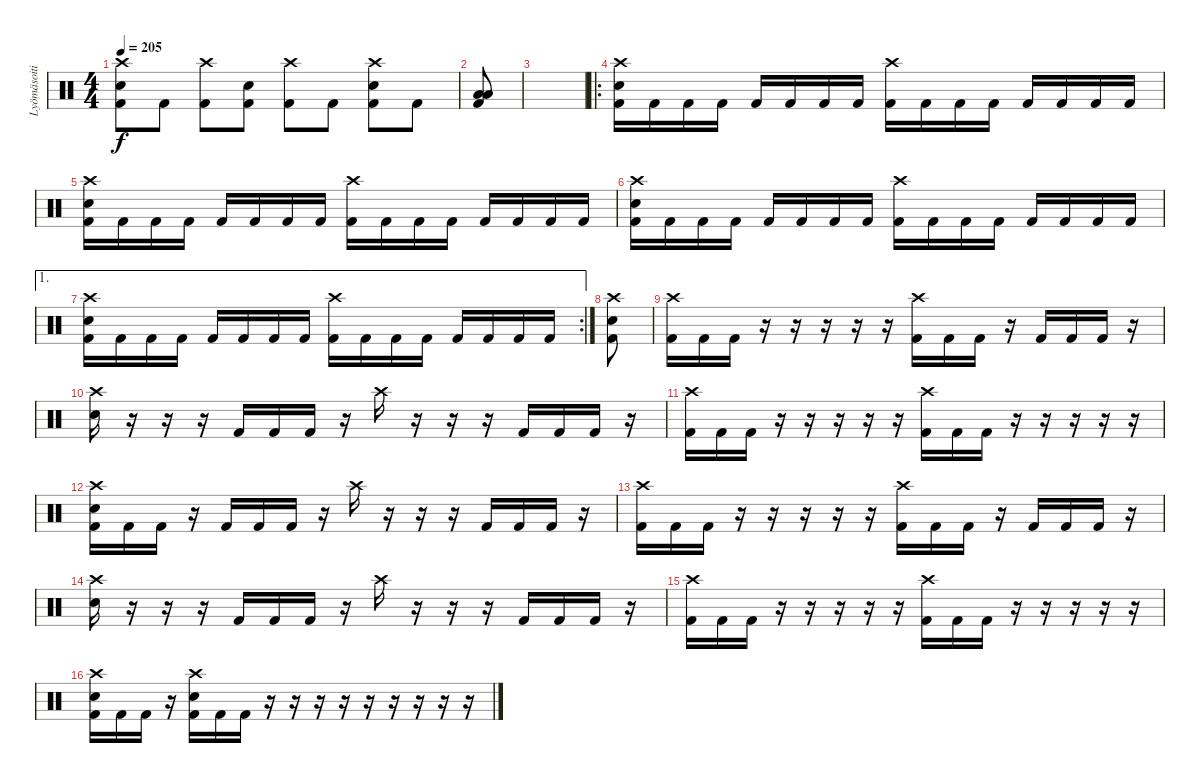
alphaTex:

\track ("Lyömäsoitin" "Lyömäsoiti") {instrument percussion}
\staff {score}
\articulation defaults
\ts (4 4)
\tempo 205
\clef neutral
\ks c
("Kick (hit) 2" "Electric Snare (hit)" "Crash high (hit)").8{dy f} "Kick (hit) 2".8 ("Kick (hit) 2" "Crash high (hit)").8 ("Kick (hit) 2" "Electric Snare (hit)").8 ("Kick (hit) 2" "Crash high (hit)").8 "Kick (hit) 2".8 ("Kick (hit) 2" "Electric Snare (hit)" "Crash high (hit)").8 "Kick (hit) 2".8 |
("Kick (hit) 2" "Low Tom (hit)" "Low Floor Tom (hit)").8 |
|
\ro
("Kick (hit) 2" "Electric Snare (hit)" "Crash high (hit)").16 "Kick (hit) 2".16 "Kick (hit) 2".16 "Kick (hit) 2".16 "Kick (hit) 2".16 "Kick (hit) 2".16 "Kick (hit) 2".16 "Kick (hit) 2".16 ("Kick (hit) 2" "Crash high (hit)").16 "Kick (hit) 2".16 "Kick (hit) 2".16 "Kick (hit) 2".16 "Kick (hit) 2".16 "Kick (hit) 2".16 "Kick (hit) 2".16 "Kick (hit) 2".16 |
("Kick (hit) 2" "Electric Snare (hit)" "Crash high (hit)").16 "Kick (hit) 2".16 "Kick (hit) 2".16 "Kick (hit) 2".16 "Kick (hit) 2".16 "Kick (hit) 2".16 "Kick (hit) 2".16 "Kick (hit) 2".16 ("Kick (hit) 2" "Crash high (hit)").16 "Kick (hit) 2".16 "Kick (hit) 2".16 "Kick (hit) 2".16 "Kick (hit) 2".16 "Kick (hit) 2".16 "Kick (hit) 2".16 "Kick (hit) 2".16 |
("Kick (hit) 2" "Electric Snare (hit)" "Crash high (hit)").16 "Kick (hit) 2".16 "Kick (hit) 2".16 "Kick (hit) 2".16 "Kick (hit) 2".16 "Kick (hit) 2".16 "Kick (hit) 2".16 "Kick (hit) 2".16 ("Kick (hit) 2" "Crash high (hit)").16 "Kick (hit) 2".16 "Kick (hit) 2".16 "Kick (hit) 2".16 "Kick (hit) 2".16 "Kick (hit) 2".16 "Kick (hit) 2".16 "Kick (hit) 2".16 |
\ae 1
\rc 2
("Kick (hit) 2" "Electric Snare (hit)" "Crash high (hit)").16 "Kick (hit) 2".16 "Kick (hit) 2".16 "Kick (hit) 2".16 "Kick (hit) 2".16 "Kick (hit) 2".16 "Kick (hit) 2".16 "Kick (hit) 2".16 ("Kick (hit) 2" "Crash high (hit)").16 "Kick (hit) 2".16 "Kick (hit) 2".16 "Kick (hit) 2".16 "Kick (hit) 2".16 "Kick (hit) 2".16 "Kick (hit) 2".16 "Kick (hit) 2".16 |
("Kick (hit) 2" "Electric Snare (hit)" "Crash high (hit)").8 |
("Kick (hit) 2" "Crash high (hit)").16 "Kick (hit) 2".16 "Kick (hit) 2".16 r.16 r.16 r.16 r.16 r.16 ("Kick (hit) 2" "Crash high (hit)").16 "Kick (hit) 2".16 "Kick (hit) 2".16 r.16 "Kick (hit) 2".16 "Kick (hit) 2".16 "Kick (hit) 2".16 r.16 |
("Electric Snare (hit)" "Crash high (hit)").16 r.16 r.16 r.16 "Kick (hit) 2".16 "Kick (hit) 2".16 "Kick (hit) 2".16 r.16 "Crash high (hit)".16 r.16 r.16 r.16 "Kick (hit) 2".16 "Kick (hit) 2".16 "Kick (hit) 2".16 r.16 |
("Kick (hit) 2" "Crash high (hit)").16 "Kick (hit) 2".16 "Kick (hit) 2".16 r.16 r.16 r.16 r.16 r.16 ("Kick (hit) 2" "Crash high (hit)").16 "Kick (hit) 2".16 "Kick (hit) 2".16 r.16 r.16 r.16 r.16 r.16 |
("Kick (hit) 2" "Electric Snare (hit)" "Crash high (hit)").16 "Kick (hit) 2".16 "Kick (hit) 2".16 r.16 "Kick (hit) 2".16 "Kick (hit) 2".16 "Kick (hit) 2".16 r.16 "Crash high (hit)".16 r.16 r.16 r.16 "Kick (hit) 2".16 "Kick (hit) 2".16 "Kick (hit) 2".16 r.16 |
("Kick (hit) 2" "Crash high (hit)").16 "Kick (hit) 2".16 "Kick (hit) 2".16 r.16 r.16 r.16 r.16 r.16 ("Kick (hit) 2" "Crash high (hit)").16 "Kick (hit) 2".16 "Kick (hit) 2".16 r.16 "Kick (hit) 2".16 "Kick (hit) 2".16 "Kick (hit) 2".16 r.16 |
("Electric Snare (hit)" "Crash high (hit)").16 r.16 r.16 r.16 "Kick (hit) 2".16 "Kick (hit) 2".16 "Kick (hit) 2".16 r.16 "Crash high (hit)".16 r.16 r.16 r.16 "Kick (hit) 2".16 "Kick (hit) 2".16 "Kick (hit) 2".16 r.16 |
("Kick (hit) 2" "Crash high (hit)").16 "Kick (hit) 2".16 "Kick (hit) 2".16 r.16 r.16 r.16 r.16 r.16 ("Kick (hit) 2" "Crash high (hit)").16 "Kick (hit) 2".16 "Kick (hit) 2".16 r.16 r.16 r.16 r.16 r.16 |
("Kick (hit) 2" "Electric Snare (hit)" "Crash high (hit)").16 "Kick (hit) 2".16 "Kick (hit) 2".16 r.16 ("Kick (hit) 2" "Electric Snare (hit)" "Crash high (hit)").16 "Kick (hit) 2".16 "Kick (hit) 2".16 r.16 r.16 r.16 r.16 r.16 r.16 r.16 r.16 r.16
